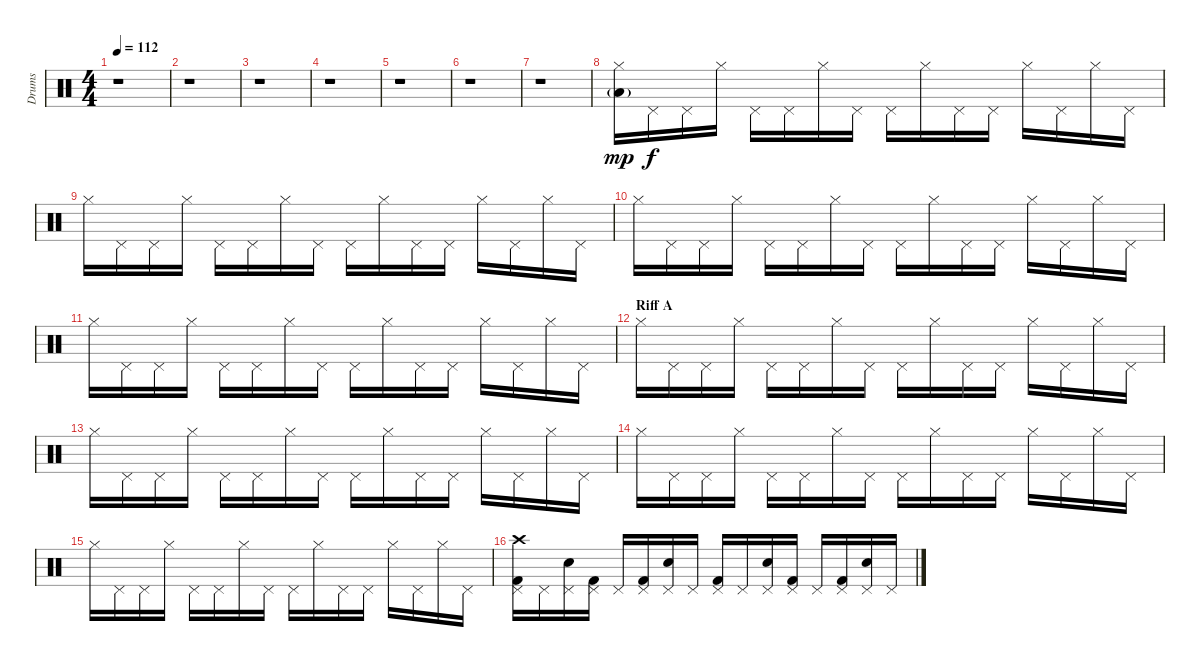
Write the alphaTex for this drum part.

\track ("Drums" "Drums") {instrument percussion}
\staff {score}
\articulation defaults
\ts (4 4)
\tempo 112
\clef neutral
\ks c
r.1{dy mp} |
r.1 |
r.1 |
r.1 |
r.1 |
r.1 |
r.1 |
("Hi-Hat (closed)" "Low Floor Tom (hit)"{g}).16 "Pedal Hi-Hat (hit)".16{dy f} "Pedal Hi-Hat (hit)".16 "Hi-Hat (closed)".16 "Pedal Hi-Hat (hit)".16 "Pedal Hi-Hat (hit)".16 "Hi-Hat (closed)".16 "Pedal Hi-Hat (hit)".16 "Pedal Hi-Hat (hit)".16 "Hi-Hat (closed)".16 "Pedal Hi-Hat (hit)".16 "Pedal Hi-Hat (hit)".16 "Hi-Hat (closed)".16 "Pedal Hi-Hat (hit)".16 "Hi-Hat (closed)".16 "Pedal Hi-Hat (hit)".16 |
"Hi-Hat (closed)".16 "Pedal Hi-Hat (hit)".16 "Pedal Hi-Hat (hit)".16 "Hi-Hat (closed)".16 "Pedal Hi-Hat (hit)".16 "Pedal Hi-Hat (hit)".16 "Hi-Hat (closed)".16 "Pedal Hi-Hat (hit)".16 "Pedal Hi-Hat (hit)".16 "Hi-Hat (closed)".16 "Pedal Hi-Hat (hit)".16 "Pedal Hi-Hat (hit)".16 "Hi-Hat (closed)".16 "Pedal Hi-Hat (hit)".16 "Hi-Hat (closed)".16 "Pedal Hi-Hat (hit)".16 |
"Hi-Hat (closed)".16 "Pedal Hi-Hat (hit)".16 "Pedal Hi-Hat (hit)".16 "Hi-Hat (closed)".16 "Pedal Hi-Hat (hit)".16 "Pedal Hi-Hat (hit)".16 "Hi-Hat (closed)".16 "Pedal Hi-Hat (hit)".16 "Pedal Hi-Hat (hit)".16 "Hi-Hat (closed)".16 "Pedal Hi-Hat (hit)".16 "Pedal Hi-Hat (hit)".16 "Hi-Hat (closed)".16 "Pedal Hi-Hat (hit)".16 "Hi-Hat (closed)".16 "Pedal Hi-Hat (hit)".16 |
"Hi-Hat (closed)".16 "Pedal Hi-Hat (hit)".16 "Pedal Hi-Hat (hit)".16 "Hi-Hat (closed)".16 "Pedal Hi-Hat (hit)".16 "Pedal Hi-Hat (hit)".16 "Hi-Hat (closed)".16 "Pedal Hi-Hat (hit)".16 "Pedal Hi-Hat (hit)".16 "Hi-Hat (closed)".16 "Pedal Hi-Hat (hit)".16 "Pedal Hi-Hat (hit)".16 "Hi-Hat (closed)".16 "Pedal Hi-Hat (hit)".16 "Hi-Hat (closed)".16 "Pedal Hi-Hat (hit)".16 |
\section ("" "Riff A")
"Hi-Hat (closed)".16 "Pedal Hi-Hat (hit)".16 "Pedal Hi-Hat (hit)".16 "Hi-Hat (closed)".16 "Pedal Hi-Hat (hit)".16 "Pedal Hi-Hat (hit)".16 "Hi-Hat (closed)".16 "Pedal Hi-Hat (hit)".16 "Pedal Hi-Hat (hit)".16 "Hi-Hat (closed)".16 "Pedal Hi-Hat (hit)".16 "Pedal Hi-Hat (hit)".16 "Hi-Hat (closed)".16 "Pedal Hi-Hat (hit)".16 "Hi-Hat (closed)".16 "Pedal Hi-Hat (hit)".16 |
"Hi-Hat (closed)".16 "Pedal Hi-Hat (hit)".16 "Pedal Hi-Hat (hit)".16 "Hi-Hat (closed)".16 "Pedal Hi-Hat (hit)".16 "Pedal Hi-Hat (hit)".16 "Hi-Hat (closed)".16 "Pedal Hi-Hat (hit)".16 "Pedal Hi-Hat (hit)".16 "Hi-Hat (closed)".16 "Pedal Hi-Hat (hit)".16 "Pedal Hi-Hat (hit)".16 "Hi-Hat (closed)".16 "Pedal Hi-Hat (hit)".16 "Hi-Hat (closed)".16 "Pedal Hi-Hat (hit)".16 |
"Hi-Hat (closed)".16 "Pedal Hi-Hat (hit)".16 "Pedal Hi-Hat (hit)".16 "Hi-Hat (closed)".16 "Pedal Hi-Hat (hit)".16 "Pedal Hi-Hat (hit)".16 "Hi-Hat (closed)".16 "Pedal Hi-Hat (hit)".16 "Pedal Hi-Hat (hit)".16 "Hi-Hat (closed)".16 "Pedal Hi-Hat (hit)".16 "Pedal Hi-Hat (hit)".16 "Hi-Hat (closed)".16 "Pedal Hi-Hat (hit)".16 "Hi-Hat (closed)".16 "Pedal Hi-Hat (hit)".16 |
"Hi-Hat (closed)".16 "Pedal Hi-Hat (hit)".16 "Pedal Hi-Hat (hit)".16 "Hi-Hat (closed)".16 "Pedal Hi-Hat (hit)".16 "Pedal Hi-Hat (hit)".16 "Hi-Hat (closed)".16 "Pedal Hi-Hat (hit)".16 "Pedal Hi-Hat (hit)".16 "Hi-Hat (closed)".16 "Pedal Hi-Hat (hit)".16 "Pedal Hi-Hat (hit)".16 "Hi-Hat (closed)".16 "Pedal Hi-Hat (hit)".16 "Hi-Hat (closed)".16 "Pedal Hi-Hat (hit)".16 |
("Kick (hit) 2" "Pedal Hi-Hat (hit)" "Crash high (hit)").16 "Pedal Hi-Hat (hit)".16 ("Snare (hit) 2" "Pedal Hi-Hat (hit)").16 ("Kick (hit) 2" "Pedal Hi-Hat (hit)").16 "Pedal Hi-Hat (hit)".16 ("Kick (hit) 2" "Pedal Hi-Hat (hit)").16 ("Snare (hit) 2" "Pedal Hi-Hat (hit)").16 "Pedal Hi-Hat (hit)".16 ("Kick (hit) 2" "Pedal Hi-Hat (hit)").16 "Pedal Hi-Hat (hit)".16 ("Snare (hit) 2" "Pedal Hi-Hat (hit)").16 ("Kick (hit) 2" "Pedal Hi-Hat (hit)").16 "Pedal Hi-Hat (hit)".16 ("Kick (hit) 2" "Pedal Hi-Hat (hit)").16 ("Snare (hit) 2" "Pedal Hi-Hat (hit)").16 "Pedal Hi-Hat (hit)".16
